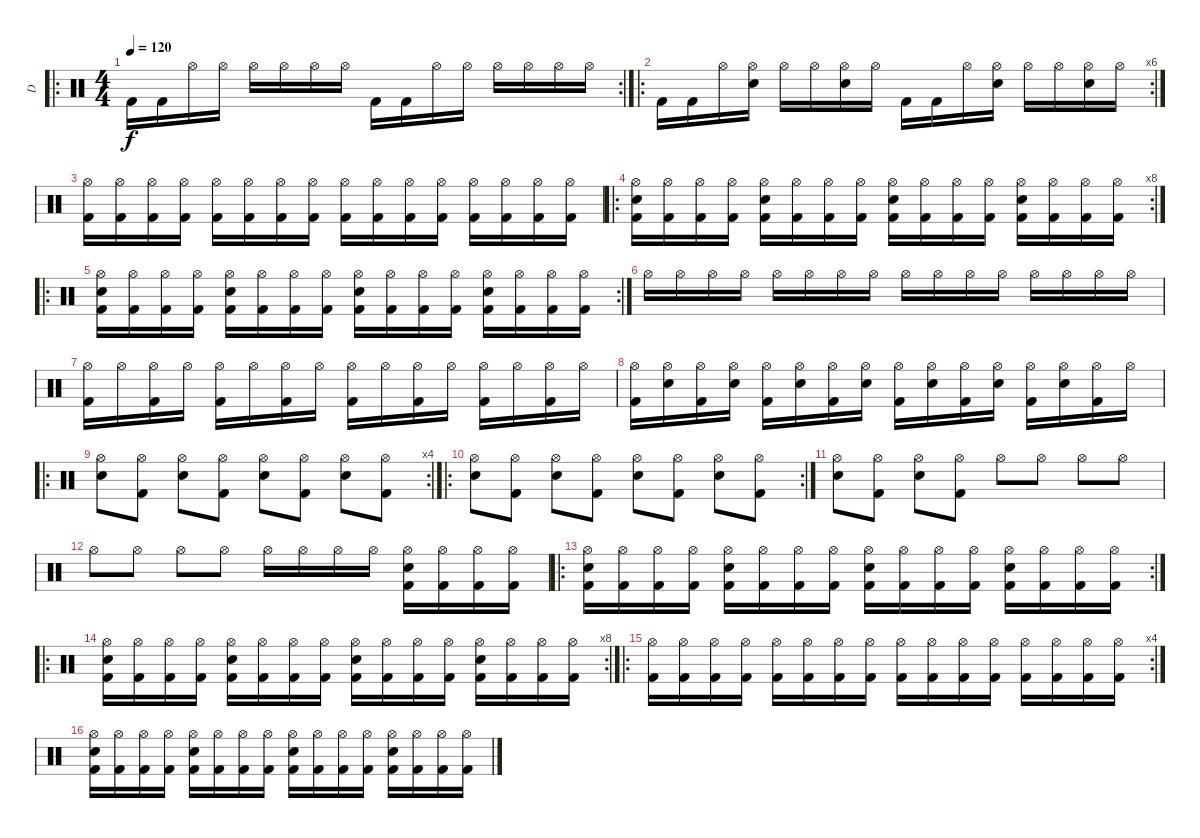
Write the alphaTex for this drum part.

\track ("D" "D") {instrument percussion}
\staff {score}
\articulation defaults
\ro
\rc 2
\ts (4 4)
\tempo 120
\clef neutral
\ks c "Kick (hit) 2".16{dy f} "Kick (hit) 2".16 "Hi-Hat (open)".16 "Hi-Hat (open)".16 "Hi-Hat (open)".16 "Hi-Hat (open)".16 "Hi-Hat (open)".16 "Hi-Hat (open)".16 "Kick (hit) 2".16 "Kick (hit) 2".16 "Hi-Hat (open)".16 "Hi-Hat (open)".16 "Hi-Hat (open)".16 "Hi-Hat (open)".16 "Hi-Hat (open)".16 "Hi-Hat (open)".16
|
\ro
\rc 6 "Kick (hit) 2".16 "Kick (hit) 2".16 "Hi-Hat (open)".16
("Electric Snare (hit)" "Hi-Hat (open)").16 "Hi-Hat (open)".16 "Hi-Hat (open)".16 ("Electric Snare (hit)" "Hi-Hat (open)").16 "Hi-Hat (open)".16 "Kick (hit) 2".16 "Kick (hit) 2".16 "Hi-Hat (open)".16 ("Electric Snare (hit)" "Hi-Hat (open)").16 "Hi-Hat (open)".16 "Hi-Hat (open)".16 ("Electric Snare (hit)" "Hi-Hat (open)").16 "Hi-Hat (open)".16 |
("Hi-Hat (open)" "Kick (hit) 2").16 ("Hi-Hat (open)" "Kick (hit) 2").16 ("Hi-Hat (open)" "Kick (hit) 2").16 ("Hi-Hat (open)" "Kick (hit) 2").16 ("Hi-Hat (open)" "Kick (hit) 2").16 ("Hi-Hat (open)" "Kick (hit) 2").16 ("Hi-Hat (open)" "Kick (hit) 2").16 ("Hi-Hat (open)" "Kick (hit) 2").16 ("Hi-Hat (open)" "Kick (hit) 2").16 ("Hi-Hat (open)" "Kick (hit) 2").16 ("Hi-Hat (open)" "Kick (hit) 2").16 ("Hi-Hat (open)" "Kick (hit) 2").16 ("Hi-Hat (open)" "Kick (hit) 2").16 ("Hi-Hat (open)" "Kick (hit) 2").16 ("Hi-Hat (open)" "Kick (hit) 2").16 ("Hi-Hat (open)" "Kick (hit) 2").16 |
\ro
\rc 8
("Hi-Hat (open)" "Electric Snare (hit)" "Kick (hit) 2").16 ("Hi-Hat (open)" "Kick (hit) 2").16 ("Hi-Hat (open)" "Kick (hit) 2").16 ("Hi-Hat (open)" "Kick (hit) 2").16 ("Hi-Hat (open)" "Electric Snare (hit)" "Kick (hit) 2").16 ("Hi-Hat (open)" "Kick (hit) 2").16 ("Hi-Hat (open)" "Kick (hit) 2").16 ("Hi-Hat (open)" "Kick (hit) 2").16 ("Hi-Hat (open)" "Electric Snare (hit)" "Kick (hit) 2").16 ("Hi-Hat (open)" "Kick (hit) 2").16 ("Hi-Hat (open)" "Kick (hit) 2").16 ("Hi-Hat (open)" "Kick (hit) 2").16 ("Hi-Hat (open)" "Electric Snare (hit)" "Kick (hit) 2").16 ("Hi-Hat (open)" "Kick (hit) 2").16 ("Hi-Hat (open)" "Kick (hit) 2").16 ("Hi-Hat (open)" "Kick (hit) 2").16 |
\ro
\rc 2
("Hi-Hat (open)" "Electric Snare (hit)" "Kick (hit) 2").16 ("Hi-Hat (open)" "Kick (hit) 2").16 ("Hi-Hat (open)" "Kick (hit) 2").16 ("Hi-Hat (open)" "Kick (hit) 2").16 ("Hi-Hat (open)" "Electric Snare (hit)" "Kick (hit) 2").16 ("Hi-Hat (open)" "Kick (hit) 2").16 ("Hi-Hat (open)" "Kick (hit) 2").16 ("Hi-Hat (open)" "Kick (hit) 2").16 ("Hi-Hat (open)" "Electric Snare (hit)" "Kick (hit) 2").16 ("Hi-Hat (open)" "Kick (hit) 2").16 ("Hi-Hat (open)" "Kick (hit) 2").16 ("Hi-Hat (open)" "Kick (hit) 2").16 ("Hi-Hat (open)" "Electric Snare (hit)" "Kick (hit) 2").16 ("Hi-Hat (open)" "Kick (hit) 2").16 ("Hi-Hat (open)" "Kick (hit) 2").16 ("Hi-Hat (open)" "Kick (hit) 2").16 |
"Hi-Hat (open)".16 "Hi-Hat (open)".16 "Hi-Hat (open)".16 "Hi-Hat (open)".16 "Hi-Hat (open)".16 "Hi-Hat (open)".16 "Hi-Hat (open)".16 "Hi-Hat (open)".16 "Hi-Hat (open)".16 "Hi-Hat (open)".16 "Hi-Hat (open)".16 "Hi-Hat (open)".16 "Hi-Hat (open)".16 "Hi-Hat (open)".16 "Hi-Hat (open)".16 "Hi-Hat (open)".16 |
("Hi-Hat (open)" "Kick (hit) 2").16 "Hi-Hat (open)".16 ("Hi-Hat (open)" "Kick (hit) 2").16 "Hi-Hat (open)".16 ("Hi-Hat (open)" "Kick (hit) 2").16 "Hi-Hat (open)".16 ("Hi-Hat (open)" "Kick (hit) 2").16 "Hi-Hat (open)".16 ("Hi-Hat (open)" "Kick (hit) 2").16 "Hi-Hat (open)".16 ("Hi-Hat (open)" "Kick (hit) 2").16 "Hi-Hat (open)".16 ("Hi-Hat (open)" "Kick (hit) 2").16 "Hi-Hat (open)".16 ("Hi-Hat (open)" "Kick (hit) 2").16 "Hi-Hat (open)".16 |
("Hi-Hat (open)" "Kick (hit) 2").16 ("Electric Snare (hit)" "Hi-Hat (open)").16 ("Hi-Hat (open)" "Kick (hit) 2").16 ("Electric Snare (hit)" "Hi-Hat (open)").16 ("Hi-Hat (open)" "Kick (hit) 2").16 ("Electric Snare (hit)" "Hi-Hat (open)").16 ("Hi-Hat (open)" "Kick (hit) 2").16 ("Electric Snare (hit)" "Hi-Hat (open)").16 ("Hi-Hat (open)" "Kick (hit) 2").16 ("Electric Snare (hit)" "Hi-Hat (open)").16 ("Hi-Hat (open)" "Kick (hit) 2").16 ("Electric Snare (hit)" "Hi-Hat (open)").16 ("Hi-Hat (open)" "Kick (hit) 2").16 ("Electric Snare (hit)" "Hi-Hat (open)").16 ("Hi-Hat (open)" "Kick (hit) 2").16 "Hi-Hat (open)".16 |
\ro
\rc 4
("Hi-Hat (open)" "Electric Snare (hit)").8 ("Kick (hit) 2" "Hi-Hat (open)").8 ("Hi-Hat (open)" "Electric Snare (hit)").8 ("Kick (hit) 2" "Hi-Hat (open)").8 ("Hi-Hat (open)" "Electric Snare (hit)").8 ("Kick (hit) 2" "Hi-Hat (open)").8 ("Hi-Hat (open)" "Electric Snare (hit)").8 ("Kick (hit) 2" "Hi-Hat (open)").8 |
\ro
\rc 2
("Hi-Hat (open)" "Electric Snare (hit)").8 ("Kick (hit) 2" "Hi-Hat (open)").8 ("Hi-Hat (open)" "Electric Snare (hit)").8 ("Kick (hit) 2" "Hi-Hat (open)").8 ("Hi-Hat (open)" "Electric Snare (hit)").8 ("Kick (hit) 2" "Hi-Hat (open)").8 ("Hi-Hat (open)" "Electric Snare (hit)").8 ("Kick (hit) 2" "Hi-Hat (open)").8 |
("Hi-Hat (open)" "Electric Snare (hit)").8 ("Kick (hit) 2" "Hi-Hat (open)").8 ("Hi-Hat (open)" "Electric Snare (hit)").8 ("Kick (hit) 2" "Hi-Hat (open)").8 "Hi-Hat (open)".8 "Hi-Hat (open)".8 "Hi-Hat (open)".8 "Hi-Hat (open)".8 |
"Hi-Hat (open)".8 "Hi-Hat (open)".8 "Hi-Hat (open)".8 "Hi-Hat (open)".8 "Hi-Hat (open)".16 "Hi-Hat (open)".16 "Hi-Hat (open)".16 "Hi-Hat (open)".16 ("Electric Snare (hit)" "Hi-Hat (open)" "Kick (hit) 2").16 ("Hi-Hat (open)" "Kick (hit) 2").16 ("Hi-Hat (open)" "Kick (hit) 2").16 ("Hi-Hat (open)" "Kick (hit) 2").16 |
\ro
\rc 2
("Hi-Hat (open)" "Electric Snare (hit)" "Kick (hit) 2").16 ("Hi-Hat (open)" "Kick (hit) 2").16 ("Hi-Hat (open)" "Kick (hit) 2").16 ("Hi-Hat (open)" "Kick (hit) 2").16 ("Hi-Hat (open)" "Electric Snare (hit)" "Kick (hit) 2").16 ("Hi-Hat (open)" "Kick (hit) 2").16 ("Hi-Hat (open)" "Kick (hit) 2").16 ("Hi-Hat (open)" "Kick (hit) 2").16 ("Hi-Hat (open)" "Electric Snare (hit)" "Kick (hit) 2").16 ("Hi-Hat (open)" "Kick (hit) 2").16 ("Hi-Hat (open)" "Kick (hit) 2").16 ("Hi-Hat (open)" "Kick (hit) 2").16 ("Hi-Hat (open)" "Electric Snare (hit)" "Kick (hit) 2").16 ("Hi-Hat (open)" "Kick (hit) 2").16 ("Hi-Hat (open)" "Kick (hit) 2").16 ("Hi-Hat (open)" "Kick (hit) 2").16 |
\ro
\rc 8
("Hi-Hat (open)" "Electric Snare (hit)" "Kick (hit) 2").16 ("Hi-Hat (open)" "Kick (hit) 2").16 ("Hi-Hat (open)" "Kick (hit) 2").16 ("Hi-Hat (open)" "Kick (hit) 2").16 ("Hi-Hat (open)" "Electric Snare (hit)" "Kick (hit) 2").16 ("Hi-Hat (open)" "Kick (hit) 2").16 ("Hi-Hat (open)" "Kick (hit) 2").16 ("Hi-Hat (open)" "Kick (hit) 2").16 ("Hi-Hat (open)" "Electric Snare (hit)" "Kick (hit) 2").16 ("Hi-Hat (open)" "Kick (hit) 2").16 ("Hi-Hat (open)" "Kick (hit) 2").16 ("Hi-Hat (open)" "Kick (hit) 2").16 ("Hi-Hat (open)" "Electric Snare (hit)" "Kick (hit) 2").16 ("Hi-Hat (open)" "Kick (hit) 2").16 ("Hi-Hat (open)" "Kick (hit) 2").16 ("Hi-Hat (open)" "Kick (hit) 2").16 |
\ro
\rc 4
("Hi-Hat (open)" "Kick (hit) 2").16 ("Hi-Hat (open)" "Kick (hit) 2").16 ("Hi-Hat (open)" "Kick (hit) 2").16 ("Hi-Hat (open)" "Kick (hit) 2").16 ("Hi-Hat (open)" "Kick (hit) 2").16 ("Hi-Hat (open)" "Kick (hit) 2").16 ("Hi-Hat (open)" "Kick (hit) 2").16 ("Hi-Hat (open)" "Kick (hit) 2").16 ("Hi-Hat (open)" "Kick (hit) 2").16 ("Hi-Hat (open)" "Kick (hit) 2").16 ("Hi-Hat (open)" "Kick (hit) 2").16 ("Hi-Hat (open)" "Kick (hit) 2").16 ("Hi-Hat (open)" "Kick (hit) 2").16 ("Hi-Hat (open)" "Kick (hit) 2").16 ("Hi-Hat (open)" "Kick (hit) 2").16 ("Hi-Hat (open)" "Kick (hit) 2").16 |
("Hi-Hat (open)" "Electric Snare (hit)" "Kick (hit) 2").16 ("Hi-Hat (open)" "Kick (hit) 2").16 ("Hi-Hat (open)" "Kick (hit) 2").16 ("Hi-Hat (open)" "Kick (hit) 2").16 ("Hi-Hat (open)" "Electric Snare (hit)" "Kick (hit) 2").16 ("Hi-Hat (open)" "Kick (hit) 2").16 ("Hi-Hat (open)" "Kick (hit) 2").16 ("Hi-Hat (open)" "Kick (hit) 2").16 ("Hi-Hat (open)" "Electric Snare (hit)" "Kick (hit) 2").16 ("Hi-Hat (open)" "Kick (hit) 2").16 ("Hi-Hat (open)" "Kick (hit) 2").16 ("Hi-Hat (open)" "Kick (hit) 2").16 ("Hi-Hat (open)" "Electric Snare (hit)" "Kick (hit) 2").16 ("Hi-Hat (open)" "Kick (hit) 2").16 ("Hi-Hat (open)" "Kick (hit) 2").16 ("Hi-Hat (open)" "Kick (hit) 2").16
